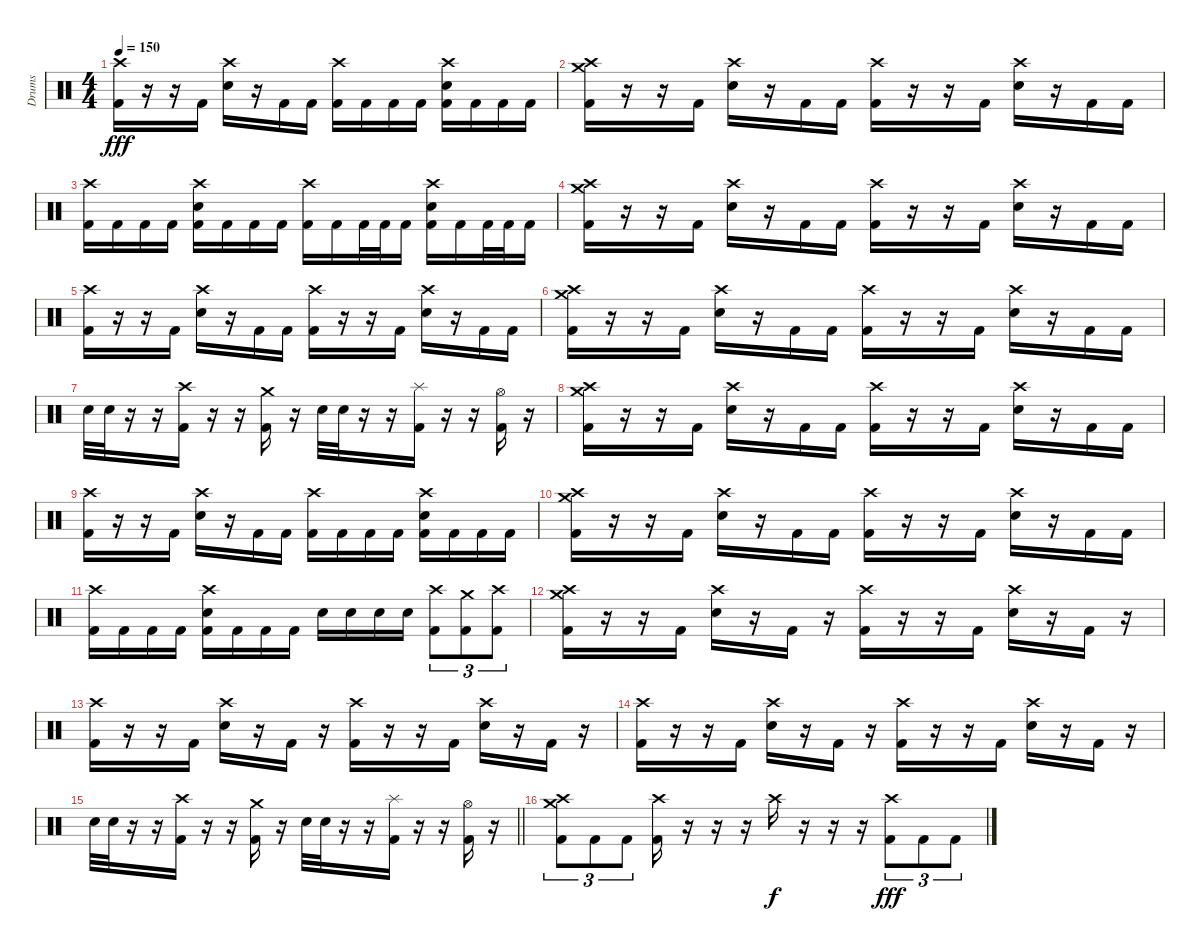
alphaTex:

\track ("Drums" "Drums") {instrument percussion}
\staff {score}
\articulation defaults
\ts (4 4)
\tempo 150
\clef neutral
\ks c
("Crash high (hit)" "Kick (hit) 2").16{dy fff} r.16 r.16 "Kick (hit) 2".16 ("Crash high (hit)" "Electric Snare (hit)").16 r.16 "Kick (hit) 2".16 "Kick (hit) 2".16 ("Crash high (hit)" "Kick (hit) 2").16 "Kick (hit) 2".16 "Kick (hit) 2".16 "Kick (hit) 2".16 ("Crash high (hit)" "Electric Snare (hit)" "Kick (hit) 2").16 "Kick (hit) 2".16 "Kick (hit) 2".16 "Kick (hit) 2".16 |
("Crash high (hit)" "Crash medium (hit)" "Kick (hit) 2").16 r.16 r.16 "Kick (hit) 2".16 ("Crash high (hit)" "Electric Snare (hit)").16 r.16 "Kick (hit) 2".16 "Kick (hit) 2".16 ("Crash high (hit)" "Kick (hit) 2").16 r.16 r.16 "Kick (hit) 2".16 ("Crash high (hit)" "Electric Snare (hit)").16 r.16 "Kick (hit) 2".16 "Kick (hit) 2".16 |
("Crash high (hit)" "Kick (hit) 2").16 "Kick (hit) 2".16 "Kick (hit) 2".16 "Kick (hit) 2".16 ("Crash high (hit)" "Electric Snare (hit)" "Kick (hit) 2").16 "Kick (hit) 2".16 "Kick (hit) 2".16 "Kick (hit) 2".16 ("Crash high (hit)" "Kick (hit) 2").16 "Kick (hit) 2".16 "Kick (hit) 2".32 "Kick (hit) 2".32 "Kick (hit) 2".16 ("Crash high (hit)" "Electric Snare (hit)" "Kick (hit) 2").16 "Kick (hit) 2".16 "Kick (hit) 2".32 "Kick (hit) 2".32 "Kick (hit) 2".16 |
("Crash high (hit)" "Crash medium (hit)" "Kick (hit) 2").16 r.16 r.16 "Kick (hit) 2".16 ("Crash high (hit)" "Electric Snare (hit)").16 r.16 "Kick (hit) 2".16 "Kick (hit) 2".16 ("Crash high (hit)" "Kick (hit) 2").16 r.16 r.16 "Kick (hit) 2".16 ("Crash high (hit)" "Electric Snare (hit)").16 r.16 "Kick (hit) 2".16 "Kick (hit) 2".16 |
("Crash high (hit)" "Kick (hit) 2").16 r.16 r.16 "Kick (hit) 2".16 ("Crash high (hit)" "Electric Snare (hit)").16 r.16 "Kick (hit) 2".16 "Kick (hit) 2".16 ("Crash high (hit)" "Kick (hit) 2").16 r.16 r.16 "Kick (hit) 2".16 ("Crash high (hit)" "Electric Snare (hit)").16 r.16 "Kick (hit) 2".16 "Kick (hit) 2".16 |
("Crash high (hit)" "Crash medium (hit)" "Kick (hit) 2").16 r.16 r.16 "Kick (hit) 2".16 ("Crash high (hit)" "Electric Snare (hit)").16 r.16 "Kick (hit) 2".16 "Kick (hit) 2".16 ("Crash high (hit)" "Kick (hit) 2").16 r.16 r.16 "Kick (hit) 2".16 ("Crash high (hit)" "Electric Snare (hit)").16 r.16 "Kick (hit) 2".16 "Kick (hit) 2".16 |
"Electric Snare (hit)".32 "Electric Snare (hit)".32 r.16 r.16 ("Crash high (hit)" "Kick (hit) 2").16 r.16 r.16 ("Crash medium (hit)" "Kick (hit) 2").16 r.16 "Electric Snare (hit)".32 "Electric Snare (hit)".32 r.16 r.16 ("Splash (hit)" "Kick (hit) 2").16 r.16 r.16 ("Hi-Hat (open)" "Kick (hit) 2").16 r.16 |
("Crash high (hit)" "Crash medium (hit)" "Kick (hit) 2").16 r.16 r.16 "Kick (hit) 2".16 ("Crash high (hit)" "Electric Snare (hit)").16 r.16 "Kick (hit) 2".16 "Kick (hit) 2".16 ("Crash high (hit)" "Kick (hit) 2").16 r.16 r.16 "Kick (hit) 2".16 ("Crash high (hit)" "Electric Snare (hit)").16 r.16 "Kick (hit) 2".16 "Kick (hit) 2".16 |
("Crash high (hit)" "Kick (hit) 2").16 r.16 r.16 "Kick (hit) 2".16 ("Crash high (hit)" "Electric Snare (hit)").16 r.16 "Kick (hit) 2".16 "Kick (hit) 2".16 ("Crash high (hit)" "Kick (hit) 2").16 "Kick (hit) 2".16 "Kick (hit) 2".16 "Kick (hit) 2".16 ("Crash high (hit)" "Electric Snare (hit)" "Kick (hit) 2").16 "Kick (hit) 2".16 "Kick (hit) 2".16 "Kick (hit) 2".16 |
("Crash high (hit)" "Crash medium (hit)" "Kick (hit) 2").16 r.16 r.16 "Kick (hit) 2".16 ("Crash high (hit)" "Electric Snare (hit)").16 r.16 "Kick (hit) 2".16 "Kick (hit) 2".16 ("Crash high (hit)" "Kick (hit) 2").16 r.16 r.16 "Kick (hit) 2".16 ("Crash high (hit)" "Electric Snare (hit)").16 r.16 "Kick (hit) 2".16 "Kick (hit) 2".16 |
("Crash high (hit)" "Kick (hit) 2").16 "Kick (hit) 2".16 "Kick (hit) 2".16 "Kick (hit) 2".16 ("Crash high (hit)" "Electric Snare (hit)" "Kick (hit) 2").16 "Kick (hit) 2".16 "Kick (hit) 2".16 "Kick (hit) 2".16 "Electric Snare (hit)".16 "Electric Snare (hit)".16 "Electric Snare (hit)".16 "Electric Snare (hit)".16 ("Crash high (hit)" "Kick (hit) 2").8{tu (3 2)} ("Crash medium (hit)" "Kick (hit) 2").8{tu (3 2)} ("Crash high (hit)" "Kick (hit) 2").8{tu (3 2)} |
("Crash high (hit)" "Crash medium (hit)" "Kick (hit) 2").16 r.16 r.16 "Kick (hit) 2".16 ("Crash high (hit)" "Electric Snare (hit)").16 r.16 "Kick (hit) 2".16 r.16 ("Crash high (hit)" "Kick (hit) 2").16 r.16 r.16 "Kick (hit) 2".16 ("Crash high (hit)" "Electric Snare (hit)").16 r.16 "Kick (hit) 2".16 r.16 |
("Crash high (hit)" "Kick (hit) 2").16 r.16 r.16 "Kick (hit) 2".16 ("Crash high (hit)" "Electric Snare (hit)").16 r.16 "Kick (hit) 2".16 r.16 ("Crash high (hit)" "Kick (hit) 2").16 r.16 r.16 "Kick (hit) 2".16 ("Crash high (hit)" "Electric Snare (hit)").16 r.16 "Kick (hit) 2".16 r.16 |
("Crash high (hit)" "Kick (hit) 2").16 r.16 r.16 "Kick (hit) 2".16 ("Crash high (hit)" "Electric Snare (hit)").16 r.16 "Kick (hit) 2".16 r.16 ("Crash high (hit)" "Kick (hit) 2").16 r.16 r.16 "Kick (hit) 2".16 ("Crash high (hit)" "Electric Snare (hit)").16 r.16 "Kick (hit) 2".16 r.16 |
\barLineRight lightlight "Electric Snare (hit)".32 "Electric Snare (hit)".32
r.16 r.16 ("Crash high (hit)" "Kick (hit) 2").16 r.16 r.16 ("Crash medium (hit)" "Kick (hit) 2").16 r.16 "Electric Snare (hit)".32 "Electric Snare (hit)".32 r.16 r.16 ("Splash (hit)" "Kick (hit) 2").16 r.16 r.16 ("Hi-Hat (open)" "Kick (hit) 2").16 r.16 |
\section ("" "")
("Crash high (hit)" "Crash medium (hit)" "Kick (hit) 2").8{tu (3 2)} "Kick (hit) 2".8{tu (3 2)} "Kick (hit) 2".8{tu (3 2)} ("Crash high (hit)" "Kick (hit) 2").16 r.16 r.16 r.16 "Crash high (hit)".16{dy f} r.16 r.16 r.16 ("Crash high (hit)" "Kick (hit) 2").8{tu (3 2) dy fff} "Kick (hit) 2".8{tu (3 2)} "Kick (hit) 2".8{tu (3 2)}
